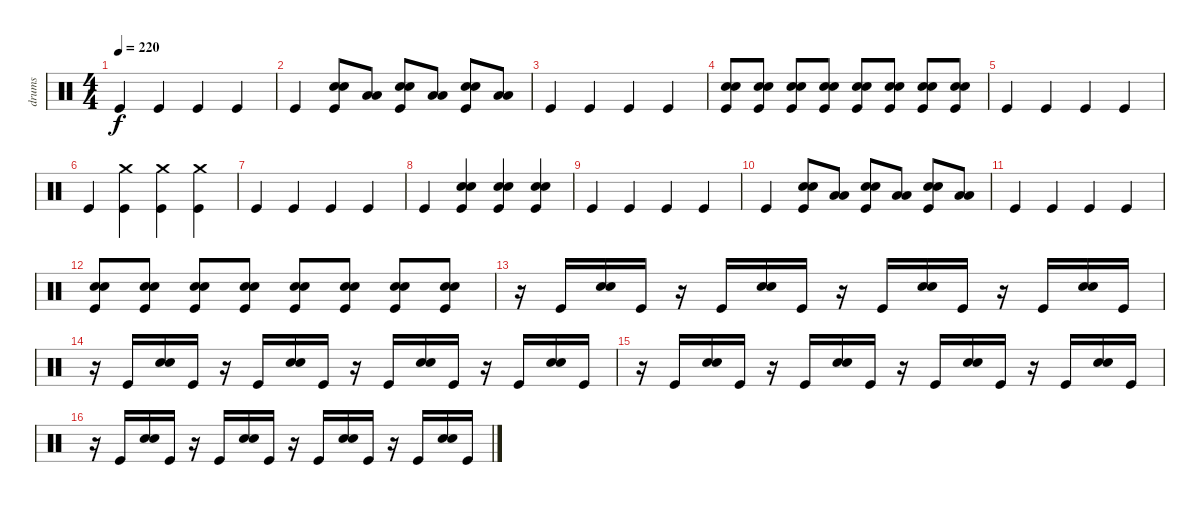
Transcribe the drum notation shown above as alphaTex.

\track ("drums" "drums") {instrument percussion}
\staff {score}
\articulation defaults
\ts (4 4)
\tempo 220
\clef neutral
\ks c "Kick (hit)".4{dy f} "Kick (hit)".4 "Kick (hit)".4 "Kick (hit)".4
|
"Kick (hit)".4 ("Kick (hit)" "Electric Snare (hit)" "Snare (hit) 2").8 ("Low Tom (hit)" "Low Tom (hit)").8 ("Kick (hit)" "Electric Snare (hit)" "Snare (hit) 2").8 ("Low Tom (hit)" "Low Tom (hit)").8 ("Kick (hit)" "Electric Snare (hit)" "Snare (hit) 2").8 ("Low Tom (hit)" "Low Tom (hit)").8 |
"Kick (hit)".4 "Kick (hit)".4 "Kick (hit)".4 "Kick (hit)".4 |
("Kick (hit)" "Electric Snare (hit)" "Snare (hit) 2").8 ("Kick (hit)" "Electric Snare (hit)" "Snare (hit) 2").8 ("Kick (hit)" "Electric Snare (hit)" "Snare (hit) 2").8 ("Kick (hit)" "Electric Snare (hit)" "Snare (hit) 2").8 ("Kick (hit)" "Electric Snare (hit)" "Snare (hit) 2").8 ("Kick (hit)" "Electric Snare (hit)" "Snare (hit) 2").8 ("Kick (hit)" "Electric Snare (hit)" "Snare (hit) 2").8 ("Kick (hit)" "Electric Snare (hit)" "Snare (hit) 2").8 |
"Kick (hit)".4 "Kick (hit)".4 "Kick (hit)".4 "Kick (hit)".4 |
"Kick (hit)".4 ("Kick (hit)" "Crash medium (hit)").4 ("Kick (hit)" "Crash medium (hit)").4 ("Kick (hit)" "Crash medium (hit)").4 |
"Kick (hit)".4 "Kick (hit)".4 "Kick (hit)".4 "Kick (hit)".4 |
"Kick (hit)".4 ("Kick (hit)" "Electric Snare (hit)" "Snare (hit) 2").4 ("Kick (hit)" "Electric Snare (hit)" "Snare (hit) 2").4 ("Kick (hit)" "Electric Snare (hit)" "Snare (hit) 2").4 |
"Kick (hit)".4 "Kick (hit)".4 "Kick (hit)".4 "Kick (hit)".4 |
"Kick (hit)".4 ("Kick (hit)" "Electric Snare (hit)" "Snare (hit) 2").8 ("Low Tom (hit)" "Low Tom (hit)").8 ("Kick (hit)" "Electric Snare (hit)" "Snare (hit) 2").8 ("Low Tom (hit)" "Low Tom (hit)").8 ("Kick (hit)" "Electric Snare (hit)" "Snare (hit) 2").8 ("Low Tom (hit)" "Low Tom (hit)").8 |
"Kick (hit)".4 "Kick (hit)".4 "Kick (hit)".4 "Kick (hit)".4 |
("Kick (hit)" "Electric Snare (hit)" "Snare (hit) 2").8 ("Kick (hit)" "Electric Snare (hit)" "Snare (hit) 2").8 ("Kick (hit)" "Electric Snare (hit)" "Snare (hit) 2").8 ("Kick (hit)" "Electric Snare (hit)" "Snare (hit) 2").8 ("Kick (hit)" "Electric Snare (hit)" "Snare (hit) 2").8 ("Kick (hit)" "Electric Snare (hit)" "Snare (hit) 2").8 ("Kick (hit)" "Electric Snare (hit)" "Snare (hit) 2").8 ("Kick (hit)" "Electric Snare (hit)" "Snare (hit) 2").8 |
r.16 "Kick (hit)".16 ("Electric Snare (hit)" "Snare (hit) 2").16 "Kick (hit)".16 r.16 "Kick (hit)".16 ("Electric Snare (hit)" "Snare (hit) 2").16 "Kick (hit)".16 r.16 "Kick (hit)".16 ("Electric Snare (hit)" "Snare (hit) 2").16 "Kick (hit)".16 r.16 "Kick (hit)".16 ("Electric Snare (hit)" "Snare (hit) 2").16 "Kick (hit)".16 |
r.16 "Kick (hit)".16 ("Electric Snare (hit)" "Snare (hit) 2").16 "Kick (hit)".16 r.16 "Kick (hit)".16 ("Electric Snare (hit)" "Snare (hit) 2").16 "Kick (hit)".16 r.16 "Kick (hit)".16 ("Electric Snare (hit)" "Snare (hit) 2").16 "Kick (hit)".16 r.16 "Kick (hit)".16 ("Electric Snare (hit)" "Snare (hit) 2").16 "Kick (hit)".16 |
r.16 "Kick (hit)".16 ("Electric Snare (hit)" "Snare (hit) 2").16 "Kick (hit)".16 r.16 "Kick (hit)".16 ("Electric Snare (hit)" "Snare (hit) 2").16 "Kick (hit)".16 r.16 "Kick (hit)".16 ("Electric Snare (hit)" "Snare (hit) 2").16 "Kick (hit)".16 r.16 "Kick (hit)".16 ("Electric Snare (hit)" "Snare (hit) 2").16 "Kick (hit)".16 |
r.16 "Kick (hit)".16 ("Electric Snare (hit)" "Snare (hit) 2").16 "Kick (hit)".16 r.16 "Kick (hit)".16 ("Electric Snare (hit)" "Snare (hit) 2").16 "Kick (hit)".16 r.16 "Kick (hit)".16 ("Electric Snare (hit)" "Snare (hit) 2").16 "Kick (hit)".16 r.16 "Kick (hit)".16 ("Electric Snare (hit)" "Snare (hit) 2").16 "Kick (hit)".16
